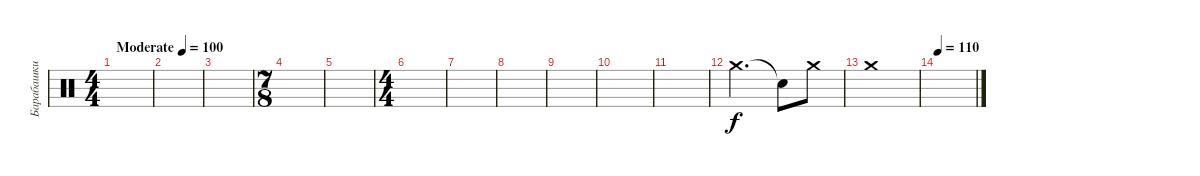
\track ("Барабашки high" "Барабашки ") {instrument percussion}
\staff {score}
\articulation defaults
\ts (4 4)
\tempo (100 "Moderate")
\clef neutral
\ks c
|
|
|
\ts (7 8)
|
|
\ts (4 4)
|
|
|
|
|
|
"Crash medium (hit)".2{d} "Snare (hit)"{t}.8 "Crash medium (hit)".8 |
"Crash medium (hit)".1 |
\tempo 110
